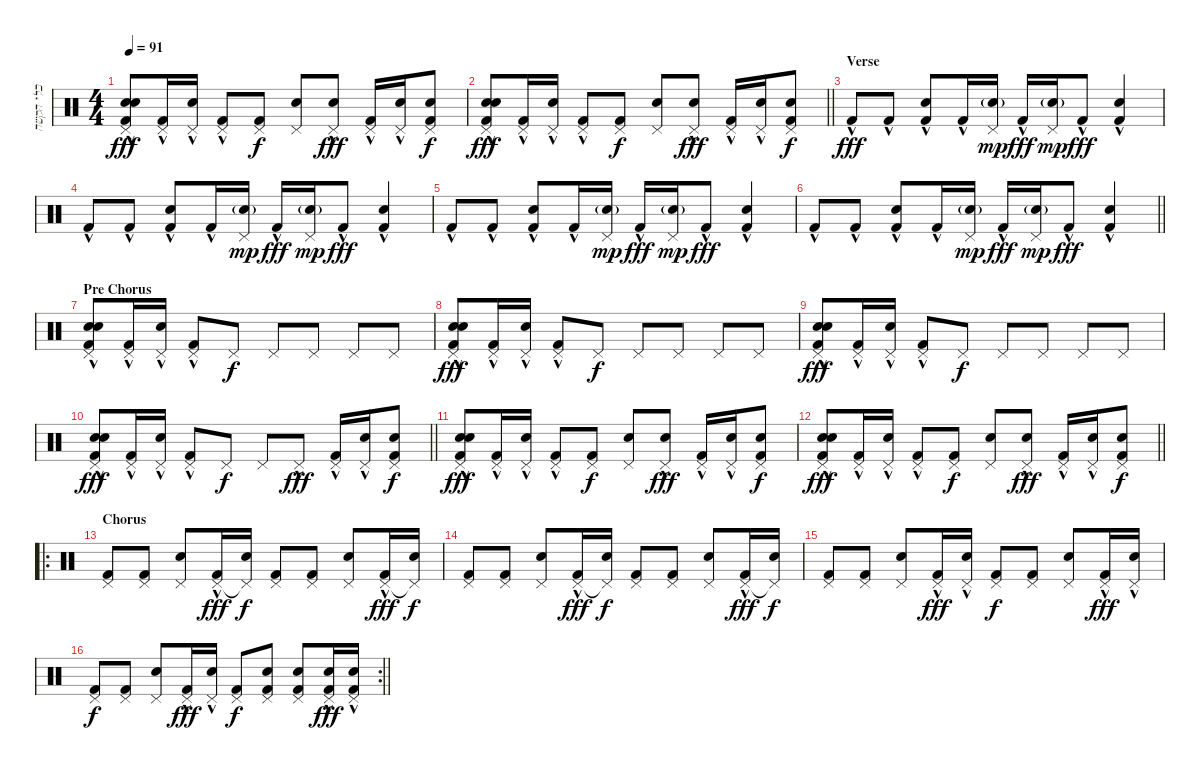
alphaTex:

\track ("כלי הקשה" "כלי הקשה") {instrument percussion}
\staff {score}
\articulation defaults
\ts (4 4)
\tempo 91
\clef neutral
\ks c
("Pedal Hi-Hat (hit)" "Electric Snare (hit)"{hac} "Electric Snare (hit)"{hac} "Kick (hit) 2"{hac}).8{dy fff} ("Pedal Hi-Hat (hit)" "Kick (hit) 2"{hac}).16 ("Pedal Hi-Hat (hit)" "Electric Snare (hit)"{hac}).16 ("Pedal Hi-Hat (hit)" "Kick (hit) 2"{hac}).8 ("Pedal Hi-Hat (hit)" "Kick (hit) 2").8{dy f} ("Pedal Hi-Hat (hit)" "Electric Snare (hit)").8 ("Pedal Hi-Hat (hit)"{hac} "Electric Snare (hit)").8{dy fff} ("Pedal Hi-Hat (hit)"{hac} "Kick (hit) 2").16 ("Pedal Hi-Hat (hit)"{hac} "Electric Snare (hit)").16 ("Pedal Hi-Hat (hit)" "Electric Snare (hit)" "Kick (hit) 2").8{dy f} |
\barLineRight lightlight
("Pedal Hi-Hat (hit)" "Electric Snare (hit)"{hac} "Electric Snare (hit)"{hac} "Kick (hit) 2"{hac}).8{dy fff} ("Pedal Hi-Hat (hit)" "Kick (hit) 2"{hac}).16 ("Pedal Hi-Hat (hit)" "Electric Snare (hit)"{hac}).16 ("Pedal Hi-Hat (hit)" "Kick (hit) 2"{hac}).8 ("Pedal Hi-Hat (hit)" "Kick (hit) 2").8{dy f} ("Pedal Hi-Hat (hit)" "Electric Snare (hit)").8 ("Pedal Hi-Hat (hit)"{hac} "Electric Snare (hit)").8{dy fff} ("Pedal Hi-Hat (hit)"{hac} "Kick (hit) 2").16 ("Pedal Hi-Hat (hit)"{hac} "Electric Snare (hit)").16 ("Pedal Hi-Hat (hit)" "Electric Snare (hit)" "Kick (hit) 2").8{dy f} |
\section ("" "Verse")
"Kick (hit) 2"{hac}.8{dy fff} "Kick (hit) 2"{hac}.8 ("Electric Snare (hit)" "Kick (hit) 2"{hac}).8 "Kick (hit) 2"{hac}.16 ("Pedal Hi-Hat (hit)" "Electric Snare (hit)"{g}).16{dy mp} "Kick (hit) 2"{hac}.16{dy fff} ("Pedal Hi-Hat (hit)" "Electric Snare (hit)"{g}).16{dy mp} "Kick (hit) 2"{hac}.8{dy fff} ("Electric Snare (hit)" "Kick (hit) 2"{hac}).4 |
"Kick (hit) 2"{hac}.8 "Kick (hit) 2"{hac}.8 ("Electric Snare (hit)" "Kick (hit) 2"{hac}).8 "Kick (hit) 2"{hac}.16 ("Pedal Hi-Hat (hit)" "Electric Snare (hit)"{g}).16{dy mp} "Kick (hit) 2"{hac}.16{dy fff} ("Pedal Hi-Hat (hit)" "Electric Snare (hit)"{g}).16{dy mp} "Kick (hit) 2"{hac}.8{dy fff} ("Electric Snare (hit)" "Kick (hit) 2"{hac}).4 |
"Kick (hit) 2"{hac}.8 "Kick (hit) 2"{hac}.8 ("Electric Snare (hit)" "Kick (hit) 2"{hac}).8 "Kick (hit) 2"{hac}.16 ("Pedal Hi-Hat (hit)" "Electric Snare (hit)"{g}).16{dy mp} "Kick (hit) 2"{hac}.16{dy fff} ("Pedal Hi-Hat (hit)" "Electric Snare (hit)"{g}).16{dy mp} "Kick (hit) 2"{hac}.8{dy fff} ("Electric Snare (hit)" "Kick (hit) 2"{hac}).4 |
\barLineRight lightlight "Kick (hit) 2"{hac}.8 "Kick (hit) 2"{hac}.8
("Electric Snare (hit)" "Kick (hit) 2"{hac}).8 "Kick (hit) 2"{hac}.16 ("Pedal Hi-Hat (hit)" "Electric Snare (hit)"{g}).16{dy mp} "Kick (hit) 2"{hac}.16{dy fff} ("Pedal Hi-Hat (hit)" "Electric Snare (hit)"{g}).16{dy mp} "Kick (hit) 2"{hac}.8{dy fff} ("Electric Snare (hit)" "Kick (hit) 2"{hac}).4 |
\section ("" "Pre Chorus")
("Pedal Hi-Hat (hit)" "Electric Snare (hit)"{hac} "Electric Snare (hit)"{hac} "Kick (hit) 2"{hac}).8 ("Pedal Hi-Hat (hit)" "Kick (hit) 2"{hac}).16 ("Pedal Hi-Hat (hit)" "Electric Snare (hit)"{hac}).16 ("Pedal Hi-Hat (hit)" "Kick (hit) 2"{hac}).8 "Pedal Hi-Hat (hit)".8{dy f} "Pedal Hi-Hat (hit)".8 "Pedal Hi-Hat (hit)".8 "Pedal Hi-Hat (hit)".8 "Pedal Hi-Hat (hit)".8 |
("Pedal Hi-Hat (hit)" "Electric Snare (hit)"{hac} "Electric Snare (hit)"{hac} "Kick (hit) 2"{hac}).8{dy fff} ("Pedal Hi-Hat (hit)" "Kick (hit) 2"{hac}).16 ("Pedal Hi-Hat (hit)" "Electric Snare (hit)"{hac}).16 ("Pedal Hi-Hat (hit)" "Kick (hit) 2"{hac}).8 "Pedal Hi-Hat (hit)".8{dy f} "Pedal Hi-Hat (hit)".8 "Pedal Hi-Hat (hit)".8 "Pedal Hi-Hat (hit)".8 "Pedal Hi-Hat (hit)".8 |
("Pedal Hi-Hat (hit)" "Electric Snare (hit)"{hac} "Electric Snare (hit)"{hac} "Kick (hit) 2"{hac}).8{dy fff} ("Pedal Hi-Hat (hit)" "Kick (hit) 2"{hac}).16 ("Pedal Hi-Hat (hit)" "Electric Snare (hit)"{hac}).16 ("Pedal Hi-Hat (hit)" "Kick (hit) 2"{hac}).8 "Pedal Hi-Hat (hit)".8{dy f} "Pedal Hi-Hat (hit)".8 "Pedal Hi-Hat (hit)".8 "Pedal Hi-Hat (hit)".8 "Pedal Hi-Hat (hit)".8 |
\barLineRight lightlight
("Pedal Hi-Hat (hit)" "Electric Snare (hit)"{hac} "Electric Snare (hit)"{hac} "Kick (hit) 2"{hac}).8{dy fff} ("Pedal Hi-Hat (hit)" "Kick (hit) 2"{hac}).16 ("Pedal Hi-Hat (hit)" "Electric Snare (hit)"{hac}).16 ("Pedal Hi-Hat (hit)" "Kick (hit) 2"{hac}).8 "Pedal Hi-Hat (hit)".8{dy f} "Pedal Hi-Hat (hit)".8 "Pedal Hi-Hat (hit)"{hac}.8{dy fff} ("Pedal Hi-Hat (hit)"{hac} "Kick (hit) 2").16 ("Pedal Hi-Hat (hit)"{hac} "Electric Snare (hit)").16 ("Pedal Hi-Hat (hit)" "Electric Snare (hit)" "Kick (hit) 2").8{dy f} |
("Pedal Hi-Hat (hit)" "Electric Snare (hit)"{hac} "Electric Snare (hit)"{hac} "Kick (hit) 2"{hac}).8{dy fff} ("Pedal Hi-Hat (hit)" "Kick (hit) 2"{hac}).16 ("Pedal Hi-Hat (hit)" "Electric Snare (hit)"{hac}).16 ("Pedal Hi-Hat (hit)" "Kick (hit) 2"{hac}).8 ("Pedal Hi-Hat (hit)" "Kick (hit) 2").8{dy f} ("Pedal Hi-Hat (hit)" "Electric Snare (hit)").8 ("Pedal Hi-Hat (hit)"{hac} "Electric Snare (hit)").8{dy fff} ("Pedal Hi-Hat (hit)"{hac} "Kick (hit) 2").16 ("Pedal Hi-Hat (hit)"{hac} "Electric Snare (hit)").16 ("Pedal Hi-Hat (hit)" "Electric Snare (hit)" "Kick (hit) 2").8{dy f} |
\barLineRight lightlight
("Pedal Hi-Hat (hit)" "Electric Snare (hit)"{hac} "Electric Snare (hit)"{hac} "Kick (hit) 2"{hac}).8{dy fff} ("Pedal Hi-Hat (hit)" "Kick (hit) 2"{hac}).16 ("Pedal Hi-Hat (hit)" "Electric Snare (hit)"{hac}).16 ("Pedal Hi-Hat (hit)" "Kick (hit) 2"{hac}).8 ("Pedal Hi-Hat (hit)" "Kick (hit) 2").8{dy f} ("Pedal Hi-Hat (hit)" "Electric Snare (hit)").8 ("Pedal Hi-Hat (hit)"{hac} "Electric Snare (hit)").8{dy fff} ("Pedal Hi-Hat (hit)"{hac} "Kick (hit) 2").16 ("Pedal Hi-Hat (hit)"{hac} "Electric Snare (hit)").16 ("Pedal Hi-Hat (hit)" "Electric Snare (hit)" "Kick (hit) 2").8{dy f} |
\ro
\section ("" "Chorus")
("Pedal Hi-Hat (hit)" "Kick (hit) 2").8 ("Pedal Hi-Hat (hit)" "Kick (hit) 2").8 ("Pedal Hi-Hat (hit)" "Electric Snare (hit)").8 ("Pedal Hi-Hat (hit)"{hac} "Kick (hit) 2").16{dy fff} ("Pedal Hi-Hat (hit)"{t} "Electric Snare (hit)").16{dy f} ("Pedal Hi-Hat (hit)" "Kick (hit) 2").8 ("Pedal Hi-Hat (hit)" "Kick (hit) 2").8 ("Pedal Hi-Hat (hit)" "Electric Snare (hit)").8 ("Pedal Hi-Hat (hit)"{hac} "Kick (hit) 2").16{dy fff} ("Pedal Hi-Hat (hit)"{t} "Electric Snare (hit)").16{dy f} |
("Pedal Hi-Hat (hit)" "Kick (hit) 2").8 ("Pedal Hi-Hat (hit)" "Kick (hit) 2").8 ("Pedal Hi-Hat (hit)" "Electric Snare (hit)").8 ("Pedal Hi-Hat (hit)"{hac} "Kick (hit) 2").16{dy fff} ("Pedal Hi-Hat (hit)"{t} "Electric Snare (hit)").16{dy f} ("Pedal Hi-Hat (hit)" "Kick (hit) 2").8 ("Pedal Hi-Hat (hit)" "Kick (hit) 2").8 ("Pedal Hi-Hat (hit)" "Electric Snare (hit)").8 ("Pedal Hi-Hat (hit)"{hac} "Kick (hit) 2").16{dy fff} ("Pedal Hi-Hat (hit)"{t} "Electric Snare (hit)").16{dy f} |
("Pedal Hi-Hat (hit)" "Kick (hit) 2").8 ("Pedal Hi-Hat (hit)" "Kick (hit) 2").8 ("Pedal Hi-Hat (hit)" "Electric Snare (hit)").8 ("Pedal Hi-Hat (hit)"{hac} "Kick (hit) 2").16{dy fff} ("Pedal Hi-Hat (hit)"{hac} "Electric Snare (hit)").16 ("Pedal Hi-Hat (hit)" "Kick (hit) 2").8{dy f} ("Pedal Hi-Hat (hit)" "Kick (hit) 2").8 ("Pedal Hi-Hat (hit)" "Electric Snare (hit)").8 ("Pedal Hi-Hat (hit)"{hac} "Kick (hit) 2").16{dy fff} ("Pedal Hi-Hat (hit)"{hac} "Electric Snare (hit)").16 |
\rc 2
\barLineRight lightlight
("Pedal Hi-Hat (hit)" "Kick (hit) 2").8{dy f} ("Pedal Hi-Hat (hit)" "Kick (hit) 2").8 ("Pedal Hi-Hat (hit)" "Electric Snare (hit)").8 ("Pedal Hi-Hat (hit)"{hac} "Kick (hit) 2").16{dy fff} ("Pedal Hi-Hat (hit)"{hac} "Electric Snare (hit)").16 ("Pedal Hi-Hat (hit)" "Kick (hit) 2").8{dy f} ("Pedal Hi-Hat (hit)" "Electric Snare (hit)" "Kick (hit) 2").8 ("Pedal Hi-Hat (hit)" "Electric Snare (hit)" "Kick (hit) 2").8 ("Pedal Hi-Hat (hit)"{hac} "Electric Snare (hit)" "Kick (hit) 2").16{dy fff} ("Pedal Hi-Hat (hit)"{hac} "Electric Snare (hit)" "Kick (hit) 2").16
